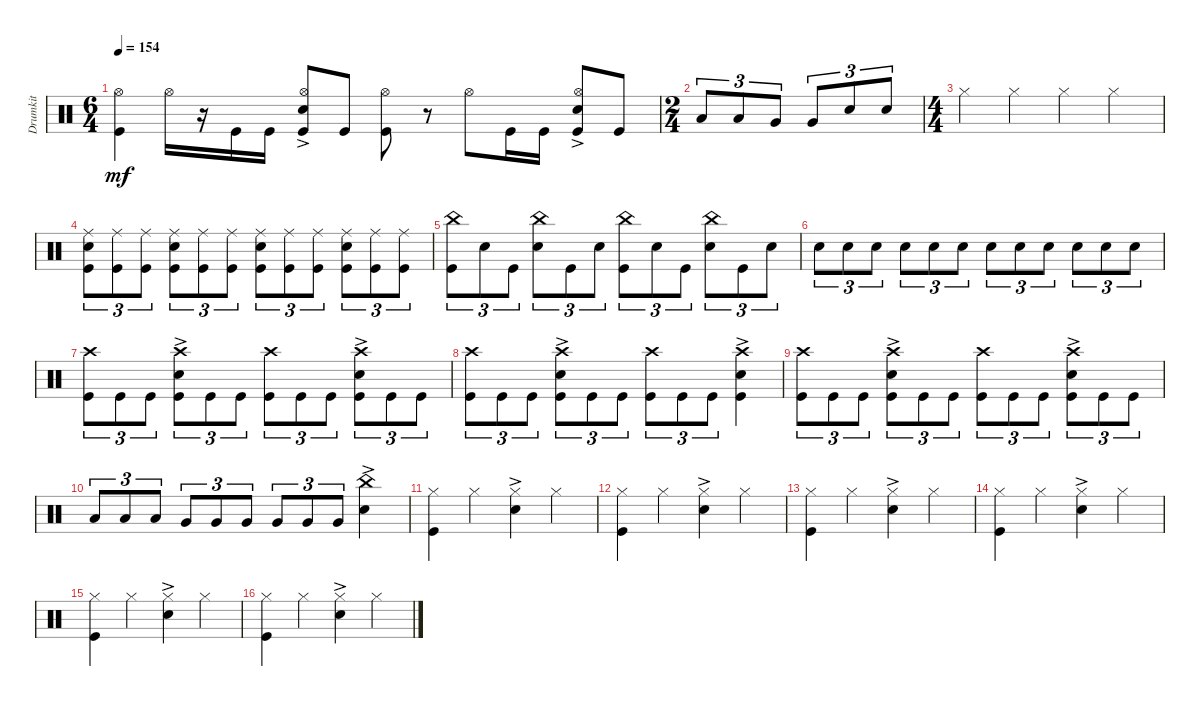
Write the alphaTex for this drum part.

\track ("Drumkit" "Drumkit") {instrument percussion}
\staff {score}
\articulation defaults
\ts (6 4)
\tempo 154
\clef neutral
\ks c
("Kick (hit)" "Hi-Hat (open)").4{dy mf} "Hi-Hat (open)".16 r.16 "Kick (hit)".16 "Kick (hit)".16 ("Kick (hit)" "Snare (hit) 2"{ac} "Hi-Hat (open)").8 "Kick (hit)".8 ("Kick (hit)" "Hi-Hat (open)").8 r.8 "Hi-Hat (open)".8 "Kick (hit)".16 "Kick (hit)".16 ("Kick (hit)" "Snare (hit) 2"{ac} "Hi-Hat (open)").8 "Kick (hit)".8 |
\ts (2 4)
"Low Tom (hit)".8{tu (3 2)} "Low Tom (hit)".8{tu (3 2)} "Very Low Tom (hit)".8{tu (3 2)} "Very Low Tom (hit)".8{tu (3 2)} "Snare (hit) 2".8{tu (3 2)} "Snare (hit) 2".8{tu (3 2)} |
\ts (4 4)
"Hi-Hat (closed)".4 "Hi-Hat (closed)".4 "Hi-Hat (closed)".4 "Hi-Hat (closed)".4 |
("Kick (hit)" "Snare (hit) 2" "Ride (middle)").8{tu (3 2)} ("Kick (hit)" "Ride (middle)").8{tu (3 2)} ("Kick (hit)" "Ride (middle)").8{tu (3 2)} ("Kick (hit)" "Snare (hit) 2" "Ride (middle)").8{tu (3 2)} ("Kick (hit)" "Ride (middle)").8{tu (3 2)} ("Kick (hit)" "Ride (middle)").8{tu (3 2)} ("Kick (hit)" "Snare (hit) 2" "Ride (middle)").8{tu (3 2)} ("Kick (hit)" "Ride (middle)").8{tu (3 2)} ("Kick (hit)" "Ride (middle)").8{tu (3 2)} ("Kick (hit)" "Snare (hit) 2" "Ride (middle)").8{tu (3 2)} ("Kick (hit)" "Ride (middle)").8{tu (3 2)} ("Kick (hit)" "Ride (middle)").8{tu (3 2)} |
("Kick (hit)" "China (hit)").8{tu (3 2)} "Snare (hit) 2".8{tu (3 2)} "Kick (hit)".8{tu (3 2)} ("Snare (hit) 2" "China (hit)").8{tu (3 2)} "Kick (hit)".8{tu (3 2)} "Snare (hit) 2".8{tu (3 2)} ("Kick (hit)" "China (hit)").8{tu (3 2)} "Snare (hit) 2".8{tu (3 2)} "Kick (hit)".8{tu (3 2)} ("Snare (hit) 2" "China (hit)").8{tu (3 2)} "Kick (hit)".8{tu (3 2)} "Snare (hit) 2".8{tu (3 2)} |
"Snare (hit) 2".8{tu (3 2)} "Snare (hit) 2".8{tu (3 2)} "Snare (hit) 2".8{tu (3 2)} "Snare (hit) 2".8{tu (3 2)} "Snare (hit) 2".8{tu (3 2)} "Snare (hit) 2".8{tu (3 2)} "Snare (hit) 2".8{tu (3 2)} "Snare (hit) 2".8{tu (3 2)} "Snare (hit) 2".8{tu (3 2)} "Snare (hit) 2".8{tu (3 2)} "Snare (hit) 2".8{tu (3 2)} "Snare (hit) 2".8{tu (3 2)} |
("Kick (hit)" "Crash high (hit)").8{tu (3 2)} "Kick (hit)".8{tu (3 2)} "Kick (hit)".8{tu (3 2)} ("Kick (hit)" "Crash high (hit)" "Snare (hit) 2"{ac}).8{tu (3 2)} "Kick (hit)".8{tu (3 2)} "Kick (hit)".8{tu (3 2)} ("Kick (hit)" "Crash high (hit)").8{tu (3 2)} "Kick (hit)".8{tu (3 2)} "Kick (hit)".8{tu (3 2)} ("Kick (hit)" "Crash high (hit)" "Snare (hit) 2"{ac}).8{tu (3 2)} "Kick (hit)".8{tu (3 2)} "Kick (hit)".8{tu (3 2)} |
("Kick (hit)" "Crash high (hit)").8{tu (3 2)} "Kick (hit)".8{tu (3 2)} "Kick (hit)".8{tu (3 2)} ("Kick (hit)" "Crash high (hit)" "Snare (hit) 2"{ac}).8{tu (3 2)} "Kick (hit)".8{tu (3 2)} "Kick (hit)".8{tu (3 2)} ("Kick (hit)" "Crash high (hit)").8{tu (3 2)} "Kick (hit)".8{tu (3 2)} "Kick (hit)".8{tu (3 2)} ("Kick (hit)" "Crash high (hit)" "Snare (hit) 2"{ac}).4 |
("Kick (hit)" "Crash high (hit)").8{tu (3 2)} "Kick (hit)".8{tu (3 2)} "Kick (hit)".8{tu (3 2)} ("Kick (hit)" "Crash high (hit)" "Snare (hit) 2"{ac}).8{tu (3 2)} "Kick (hit)".8{tu (3 2)} "Kick (hit)".8{tu (3 2)} ("Kick (hit)" "Crash high (hit)").8{tu (3 2)} "Kick (hit)".8{tu (3 2)} "Kick (hit)".8{tu (3 2)} ("Kick (hit)" "Crash high (hit)" "Snare (hit) 2"{ac}).8{tu (3 2)} "Kick (hit)".8{tu (3 2)} "Kick (hit)".8{tu (3 2)} |
"Low Tom (hit)".8{tu (3 2)} "Low Tom (hit)".8{tu (3 2)} "Low Tom (hit)".8{tu (3 2)} "Very Low Tom (hit)".8{tu (3 2)} "Very Low Tom (hit)".8{tu (3 2)} "Very Low Tom (hit)".8{tu (3 2)} "Very Low Tom (hit)".8{tu (3 2)} "Very Low Tom (hit)".8{tu (3 2)} "Very Low Tom (hit)".8{tu (3 2)} ("Snare (hit) 2"{ac} "China (hit)").4 |
("Hi-Hat (closed)" "Kick (hit)").4 "Hi-Hat (closed)".4 ("Hi-Hat (closed)" "Snare (hit) 2"{ac}).4 "Hi-Hat (closed)".4 |
("Hi-Hat (closed)" "Kick (hit)").4 "Hi-Hat (closed)".4 ("Hi-Hat (closed)" "Snare (hit) 2"{ac}).4 "Hi-Hat (closed)".4 |
("Hi-Hat (closed)" "Kick (hit)").4 "Hi-Hat (closed)".4 ("Hi-Hat (closed)" "Snare (hit) 2"{ac}).4 "Hi-Hat (closed)".4 |
("Hi-Hat (closed)" "Kick (hit)").4 "Hi-Hat (closed)".4 ("Hi-Hat (closed)" "Snare (hit) 2"{ac}).4 "Hi-Hat (closed)".4 |
("Hi-Hat (closed)" "Kick (hit)").4 "Hi-Hat (closed)".4 ("Hi-Hat (closed)" "Snare (hit) 2"{ac}).4 "Hi-Hat (closed)".4 |
("Hi-Hat (closed)" "Kick (hit)").4 "Hi-Hat (closed)".4 ("Hi-Hat (closed)" "Snare (hit) 2"{ac}).4 "Hi-Hat (closed)".4
